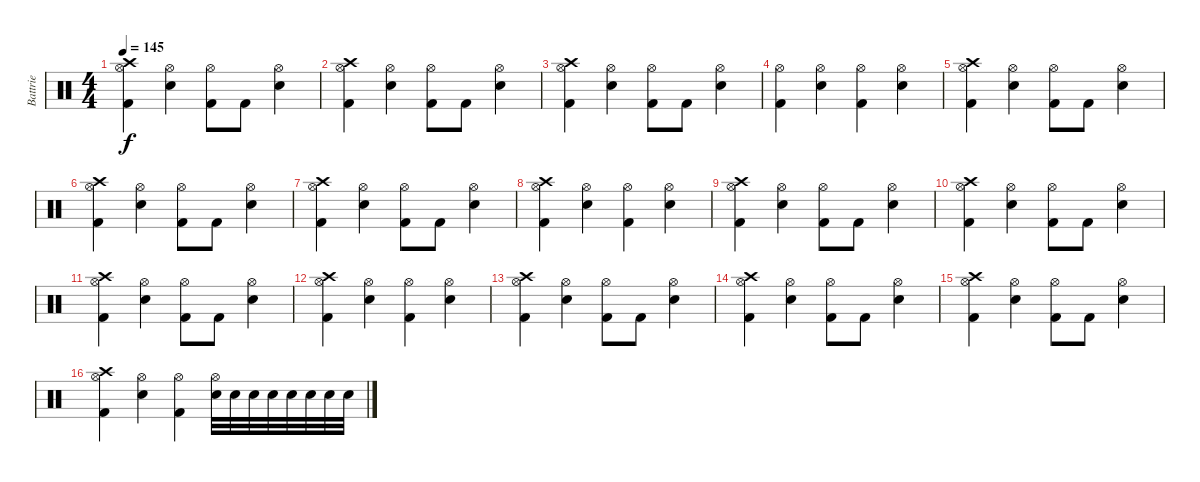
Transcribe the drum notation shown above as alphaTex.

\track ("Battrie" "Battrie") {instrument percussion}
\staff {score}
\articulation defaults
\ts (4 4)
\tempo 145
\clef neutral
\ks c
("Hi-Hat (open)" "Kick (hit) 2" "Crash high (hit)").4{dy f} ("Hi-Hat (open)" "Snare (hit) 2").4 ("Hi-Hat (open)" "Kick (hit) 2").8 "Kick (hit) 2".8 ("Hi-Hat (open)" "Snare (hit) 2").4 |
("Hi-Hat (open)" "Kick (hit) 2" "Crash high (hit)").4 ("Hi-Hat (open)" "Snare (hit) 2").4 ("Hi-Hat (open)" "Kick (hit) 2").8 "Kick (hit) 2".8 ("Hi-Hat (open)" "Snare (hit) 2").4 |
("Hi-Hat (open)" "Kick (hit) 2" "Crash high (hit)").4 ("Hi-Hat (open)" "Snare (hit) 2").4 ("Hi-Hat (open)" "Kick (hit) 2").8 "Kick (hit) 2".8 ("Hi-Hat (open)" "Snare (hit) 2").4 |
("Hi-Hat (open)" "Kick (hit) 2").4 ("Hi-Hat (open)" "Snare (hit) 2").4 ("Hi-Hat (open)" "Kick (hit) 2").4 ("Snare (hit) 2" "Hi-Hat (open)").4 |
("Hi-Hat (open)" "Kick (hit) 2" "Crash high (hit)").4 ("Hi-Hat (open)" "Snare (hit) 2").4 ("Hi-Hat (open)" "Kick (hit) 2").8 "Kick (hit) 2".8 ("Hi-Hat (open)" "Snare (hit) 2").4 |
("Hi-Hat (open)" "Kick (hit) 2" "Crash high (hit)").4 ("Hi-Hat (open)" "Snare (hit) 2").4 ("Hi-Hat (open)" "Kick (hit) 2").8 "Kick (hit) 2".8 ("Hi-Hat (open)" "Snare (hit) 2").4 |
("Hi-Hat (open)" "Kick (hit) 2" "Crash high (hit)").4 ("Hi-Hat (open)" "Snare (hit) 2").4 ("Hi-Hat (open)" "Kick (hit) 2").8 "Kick (hit) 2".8 ("Hi-Hat (open)" "Snare (hit) 2").4 |
("Hi-Hat (open)" "Kick (hit) 2" "Crash high (hit)").4 ("Hi-Hat (open)" "Snare (hit) 2").4 ("Hi-Hat (open)" "Kick (hit) 2").4 ("Snare (hit) 2" "Hi-Hat (open)").4 |
("Hi-Hat (open)" "Kick (hit) 2" "Crash high (hit)").4 ("Hi-Hat (open)" "Snare (hit) 2").4 ("Hi-Hat (open)" "Kick (hit) 2").8 "Kick (hit) 2".8 ("Hi-Hat (open)" "Snare (hit) 2").4 |
("Hi-Hat (open)" "Kick (hit) 2" "Crash high (hit)").4 ("Hi-Hat (open)" "Snare (hit) 2").4 ("Hi-Hat (open)" "Kick (hit) 2").8 "Kick (hit) 2".8 ("Hi-Hat (open)" "Snare (hit) 2").4 |
("Hi-Hat (open)" "Kick (hit) 2" "Crash high (hit)").4 ("Hi-Hat (open)" "Snare (hit) 2").4 ("Hi-Hat (open)" "Kick (hit) 2").8 "Kick (hit) 2".8 ("Hi-Hat (open)" "Snare (hit) 2").4 |
("Hi-Hat (open)" "Kick (hit) 2" "Crash high (hit)").4 ("Hi-Hat (open)" "Snare (hit) 2").4 ("Hi-Hat (open)" "Kick (hit) 2").4 ("Snare (hit) 2" "Hi-Hat (open)").4 |
("Hi-Hat (open)" "Kick (hit) 2" "Crash high (hit)").4 ("Hi-Hat (open)" "Snare (hit) 2").4 ("Hi-Hat (open)" "Kick (hit) 2").8 "Kick (hit) 2".8 ("Hi-Hat (open)" "Snare (hit) 2").4 |
("Hi-Hat (open)" "Kick (hit) 2" "Crash high (hit)").4 ("Hi-Hat (open)" "Snare (hit) 2").4 ("Hi-Hat (open)" "Kick (hit) 2").8 "Kick (hit) 2".8 ("Hi-Hat (open)" "Snare (hit) 2").4 |
("Hi-Hat (open)" "Kick (hit) 2" "Crash high (hit)").4 ("Hi-Hat (open)" "Snare (hit) 2").4 ("Hi-Hat (open)" "Kick (hit) 2").8 "Kick (hit) 2".8 ("Hi-Hat (open)" "Snare (hit) 2").4 |
("Hi-Hat (open)" "Kick (hit) 2" "Crash high (hit)").4 ("Hi-Hat (open)" "Snare (hit) 2").4 ("Hi-Hat (open)" "Kick (hit) 2").4 ("Snare (hit) 2" "Hi-Hat (open)").32 "Snare (hit) 2".32 "Snare (hit) 2".32 "Snare (hit) 2".32 "Snare (hit) 2".32 "Snare (hit) 2".32 "Snare (hit) 2".32 "Snare (hit) 2".32
